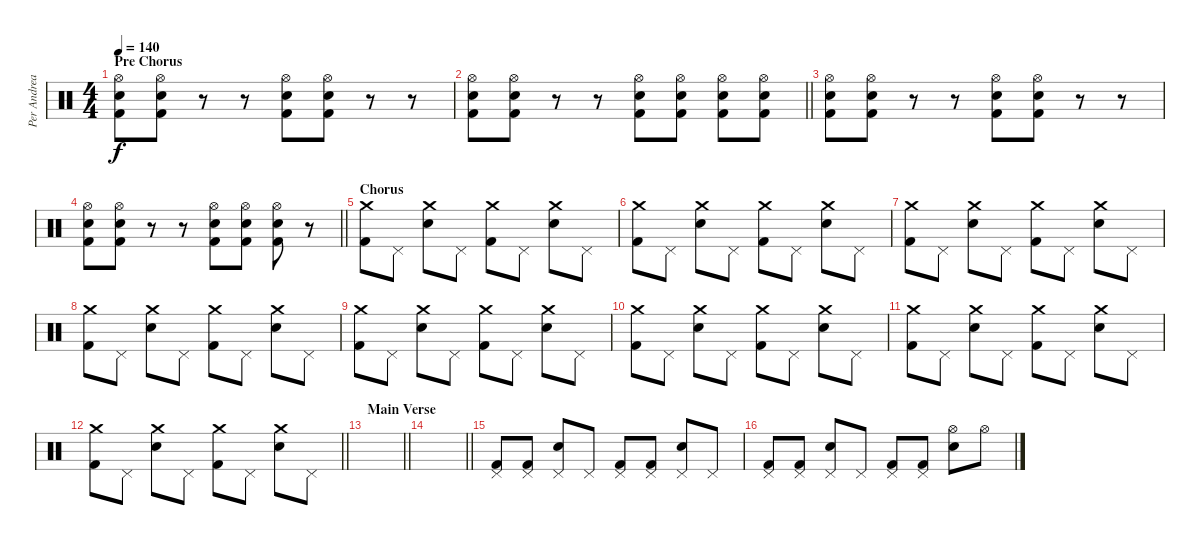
\track ("Per Andreasson" "Per Andrea") {instrument percussion}
\staff {score}
\articulation defaults
\ts (4 4)
\section ("" "Pre Chorus")
\tempo 140
\clef neutral
\ks c
("Hi-Hat (open)" "Snare (hit) 2" "Kick (hit) 2").8{dy f} ("Hi-Hat (open)" "Snare (hit) 2" "Kick (hit) 2").8 r.8 r.8 ("Hi-Hat (open)" "Snare (hit) 2" "Kick (hit) 2").8 ("Hi-Hat (open)" "Snare (hit) 2" "Kick (hit) 2").8 r.8 r.8 |
\barLineRight lightlight
("Hi-Hat (open)" "Snare (hit) 2" "Kick (hit) 2").8 ("Hi-Hat (open)" "Snare (hit) 2" "Kick (hit) 2").8 r.8 r.8 ("Hi-Hat (open)" "Snare (hit) 2" "Kick (hit) 2").8 ("Hi-Hat (open)" "Snare (hit) 2" "Kick (hit) 2").8 ("Hi-Hat (open)" "Snare (hit) 2" "Kick (hit) 2").8 ("Hi-Hat (open)" "Snare (hit) 2" "Kick (hit) 2").8 |
("Hi-Hat (open)" "Snare (hit) 2" "Kick (hit) 2").8 ("Hi-Hat (open)" "Snare (hit) 2" "Kick (hit) 2").8 r.8 r.8 ("Hi-Hat (open)" "Snare (hit) 2" "Kick (hit) 2").8 ("Hi-Hat (open)" "Snare (hit) 2" "Kick (hit) 2").8 r.8 r.8 |
\barLineRight lightlight
("Hi-Hat (open)" "Snare (hit) 2" "Kick (hit) 2").8 ("Hi-Hat (open)" "Snare (hit) 2" "Kick (hit) 2").8 r.8 r.8 ("Hi-Hat (open)" "Snare (hit) 2" "Kick (hit) 2").8 ("Hi-Hat (open)" "Snare (hit) 2" "Kick (hit) 2").8 ("Hi-Hat (open)" "Snare (hit) 2" "Kick (hit) 2").8 r.8 |
\section ("" "Chorus")
("Crash medium (hit)" "Kick (hit) 2").8 "Pedal Hi-Hat (hit)".8 ("Crash medium (hit)" "Snare (hit) 2").8 "Pedal Hi-Hat (hit)".8 ("Crash medium (hit)" "Kick (hit) 2").8 "Pedal Hi-Hat (hit)".8 ("Crash medium (hit)" "Snare (hit) 2").8 "Pedal Hi-Hat (hit)".8 |
("Crash medium (hit)" "Kick (hit) 2").8 "Pedal Hi-Hat (hit)".8 ("Crash medium (hit)" "Snare (hit) 2").8 "Pedal Hi-Hat (hit)".8 ("Crash medium (hit)" "Kick (hit) 2").8 "Pedal Hi-Hat (hit)".8 ("Crash medium (hit)" "Snare (hit) 2").8 "Pedal Hi-Hat (hit)".8 |
("Crash medium (hit)" "Kick (hit) 2").8 "Pedal Hi-Hat (hit)".8 ("Crash medium (hit)" "Snare (hit) 2").8 "Pedal Hi-Hat (hit)".8 ("Crash medium (hit)" "Kick (hit) 2").8 "Pedal Hi-Hat (hit)".8 ("Crash medium (hit)" "Snare (hit) 2").8 "Pedal Hi-Hat (hit)".8 |
("Crash medium (hit)" "Kick (hit) 2").8 "Pedal Hi-Hat (hit)".8 ("Crash medium (hit)" "Snare (hit) 2").8 "Pedal Hi-Hat (hit)".8 ("Crash medium (hit)" "Kick (hit) 2").8 "Pedal Hi-Hat (hit)".8 ("Crash medium (hit)" "Snare (hit) 2").8 "Pedal Hi-Hat (hit)".8 |
("Crash medium (hit)" "Kick (hit) 2").8 "Pedal Hi-Hat (hit)".8 ("Crash medium (hit)" "Snare (hit) 2").8 "Pedal Hi-Hat (hit)".8 ("Crash medium (hit)" "Kick (hit) 2").8 "Pedal Hi-Hat (hit)".8 ("Crash medium (hit)" "Snare (hit) 2").8 "Pedal Hi-Hat (hit)".8 |
("Crash medium (hit)" "Kick (hit) 2").8 "Pedal Hi-Hat (hit)".8 ("Crash medium (hit)" "Snare (hit) 2").8 "Pedal Hi-Hat (hit)".8 ("Crash medium (hit)" "Kick (hit) 2").8 "Pedal Hi-Hat (hit)".8 ("Crash medium (hit)" "Snare (hit) 2").8 "Pedal Hi-Hat (hit)".8 |
("Crash medium (hit)" "Kick (hit) 2").8 "Pedal Hi-Hat (hit)".8 ("Crash medium (hit)" "Snare (hit) 2").8 "Pedal Hi-Hat (hit)".8 ("Crash medium (hit)" "Kick (hit) 2").8 "Pedal Hi-Hat (hit)".8 ("Crash medium (hit)" "Snare (hit) 2").8 "Pedal Hi-Hat (hit)".8 |
\barLineRight lightlight
("Crash medium (hit)" "Kick (hit) 2").8 "Pedal Hi-Hat (hit)".8 ("Crash medium (hit)" "Snare (hit) 2").8 "Pedal Hi-Hat (hit)".8 ("Crash medium (hit)" "Kick (hit) 2").8 "Pedal Hi-Hat (hit)".8 ("Crash medium (hit)" "Snare (hit) 2").8 "Pedal Hi-Hat (hit)".8 |
\section ("" "Main Verse")
\barLineRight lightlight
|
\barLineRight lightlight
|
\section ("" "")
("Pedal Hi-Hat (hit)" "Kick (hit) 2").8 ("Pedal Hi-Hat (hit)" "Kick (hit) 2").8 ("Pedal Hi-Hat (hit)" "Snare (hit) 2").8 "Pedal Hi-Hat (hit)".8 ("Pedal Hi-Hat (hit)" "Kick (hit) 2").8 ("Pedal Hi-Hat (hit)" "Kick (hit) 2").8 ("Pedal Hi-Hat (hit)" "Snare (hit) 2").8 "Pedal Hi-Hat (hit)".8 |
("Pedal Hi-Hat (hit)" "Kick (hit) 2").8 ("Pedal Hi-Hat (hit)" "Kick (hit) 2").8 ("Pedal Hi-Hat (hit)" "Snare (hit) 2").8 "Pedal Hi-Hat (hit)".8 ("Pedal Hi-Hat (hit)" "Kick (hit) 2").8 ("Pedal Hi-Hat (hit)" "Kick (hit) 2").8 ("Hi-Hat (open)" "Snare (hit) 2").8 "Hi-Hat (open)".8
